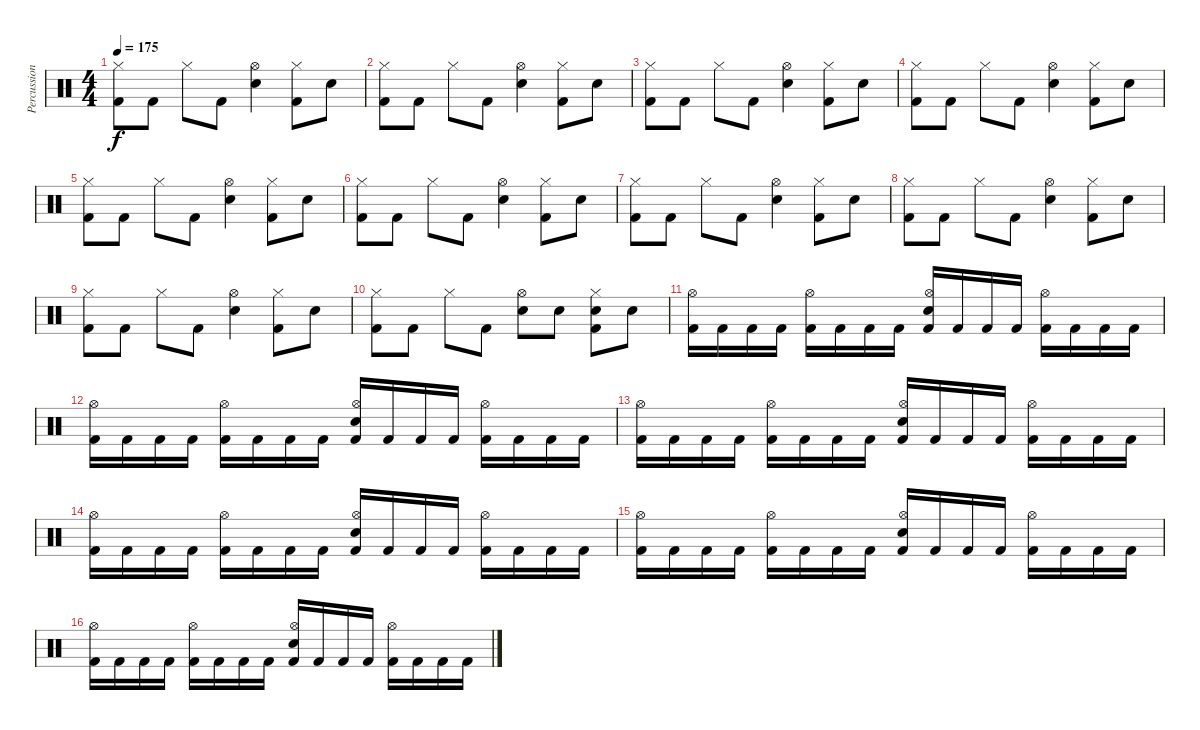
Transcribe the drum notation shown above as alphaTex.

\track ("Percussion" "Percussion") {instrument percussion}
\staff {score}
\articulation defaults
\ts (4 4)
\tempo 175
\clef neutral
\ks c
("Hi-Hat (closed)" "Kick (hit) 2").8{dy f} "Kick (hit) 2".8 "Hi-Hat (closed)".8 "Kick (hit) 2".8 ("Hi-Hat (open)" "Electric Snare (hit)").4 ("Hi-Hat (closed)" "Kick (hit) 2").8 "Electric Snare (hit)".8 |
("Hi-Hat (closed)" "Kick (hit) 2").8 "Kick (hit) 2".8 "Hi-Hat (closed)".8 "Kick (hit) 2".8 ("Hi-Hat (open)" "Electric Snare (hit)").4 ("Hi-Hat (closed)" "Kick (hit) 2").8 "Electric Snare (hit)".8 |
("Hi-Hat (closed)" "Kick (hit) 2").8 "Kick (hit) 2".8 "Hi-Hat (closed)".8 "Kick (hit) 2".8 ("Hi-Hat (open)" "Electric Snare (hit)").4 ("Hi-Hat (closed)" "Kick (hit) 2").8 "Electric Snare (hit)".8 |
("Hi-Hat (closed)" "Kick (hit) 2").8 "Kick (hit) 2".8 "Hi-Hat (closed)".8 "Kick (hit) 2".8 ("Hi-Hat (open)" "Electric Snare (hit)").4 ("Hi-Hat (closed)" "Kick (hit) 2").8 "Electric Snare (hit)".8 |
("Hi-Hat (closed)" "Kick (hit) 2").8 "Kick (hit) 2".8 "Hi-Hat (closed)".8 "Kick (hit) 2".8 ("Hi-Hat (open)" "Electric Snare (hit)").4 ("Hi-Hat (closed)" "Kick (hit) 2").8 "Electric Snare (hit)".8 |
("Hi-Hat (closed)" "Kick (hit) 2").8 "Kick (hit) 2".8 "Hi-Hat (closed)".8 "Kick (hit) 2".8 ("Hi-Hat (open)" "Electric Snare (hit)").4 ("Hi-Hat (closed)" "Kick (hit) 2").8 "Electric Snare (hit)".8 |
("Hi-Hat (closed)" "Kick (hit) 2").8 "Kick (hit) 2".8 "Hi-Hat (closed)".8 "Kick (hit) 2".8 ("Hi-Hat (open)" "Electric Snare (hit)").4 ("Hi-Hat (closed)" "Kick (hit) 2").8 "Electric Snare (hit)".8 |
("Hi-Hat (closed)" "Kick (hit) 2").8 "Kick (hit) 2".8 "Hi-Hat (closed)".8 "Kick (hit) 2".8 ("Hi-Hat (open)" "Electric Snare (hit)").4 ("Hi-Hat (closed)" "Kick (hit) 2").8 "Electric Snare (hit)".8 |
("Hi-Hat (closed)" "Kick (hit) 2").8 "Kick (hit) 2".8 "Hi-Hat (closed)".8 "Kick (hit) 2".8 ("Hi-Hat (open)" "Electric Snare (hit)").4 ("Hi-Hat (closed)" "Kick (hit) 2").8 "Electric Snare (hit)".8 |
("Hi-Hat (closed)" "Kick (hit) 2").8 "Kick (hit) 2".8 "Hi-Hat (closed)".8 "Kick (hit) 2".8 ("Hi-Hat (open)" "Electric Snare (hit)").8 "Electric Snare (hit)".8 ("Hi-Hat (closed)" "Electric Snare (hit)" "Kick (hit) 2").8 "Electric Snare (hit)".8 |
("Kick (hit) 2" "Hi-Hat (open)").16 "Kick (hit) 2".16 "Kick (hit) 2".16 "Kick (hit) 2".16 ("Kick (hit) 2" "Hi-Hat (open)").16 "Kick (hit) 2".16 "Kick (hit) 2".16 "Kick (hit) 2".16 ("Kick (hit) 2" "Electric Snare (hit)" "Hi-Hat (open)").16 "Kick (hit) 2".16 "Kick (hit) 2".16 "Kick (hit) 2".16 ("Kick (hit) 2" "Hi-Hat (open)").16 "Kick (hit) 2".16 "Kick (hit) 2".16 "Kick (hit) 2".16 |
("Kick (hit) 2" "Hi-Hat (open)").16 "Kick (hit) 2".16 "Kick (hit) 2".16 "Kick (hit) 2".16 ("Kick (hit) 2" "Hi-Hat (open)").16 "Kick (hit) 2".16 "Kick (hit) 2".16 "Kick (hit) 2".16 ("Kick (hit) 2" "Electric Snare (hit)" "Hi-Hat (open)").16 "Kick (hit) 2".16 "Kick (hit) 2".16 "Kick (hit) 2".16 ("Kick (hit) 2" "Hi-Hat (open)").16 "Kick (hit) 2".16 "Kick (hit) 2".16 "Kick (hit) 2".16 |
("Kick (hit) 2" "Hi-Hat (open)").16 "Kick (hit) 2".16 "Kick (hit) 2".16 "Kick (hit) 2".16 ("Kick (hit) 2" "Hi-Hat (open)").16 "Kick (hit) 2".16 "Kick (hit) 2".16 "Kick (hit) 2".16 ("Kick (hit) 2" "Electric Snare (hit)" "Hi-Hat (open)").16 "Kick (hit) 2".16 "Kick (hit) 2".16 "Kick (hit) 2".16 ("Kick (hit) 2" "Hi-Hat (open)").16 "Kick (hit) 2".16 "Kick (hit) 2".16 "Kick (hit) 2".16 |
("Kick (hit) 2" "Hi-Hat (open)").16 "Kick (hit) 2".16 "Kick (hit) 2".16 "Kick (hit) 2".16 ("Kick (hit) 2" "Hi-Hat (open)").16 "Kick (hit) 2".16 "Kick (hit) 2".16 "Kick (hit) 2".16 ("Kick (hit) 2" "Electric Snare (hit)" "Hi-Hat (open)").16 "Kick (hit) 2".16 "Kick (hit) 2".16 "Kick (hit) 2".16 ("Kick (hit) 2" "Hi-Hat (open)").16 "Kick (hit) 2".16 "Kick (hit) 2".16 "Kick (hit) 2".16 |
("Kick (hit) 2" "Hi-Hat (open)").16 "Kick (hit) 2".16 "Kick (hit) 2".16 "Kick (hit) 2".16 ("Kick (hit) 2" "Hi-Hat (open)").16 "Kick (hit) 2".16 "Kick (hit) 2".16 "Kick (hit) 2".16 ("Kick (hit) 2" "Electric Snare (hit)" "Hi-Hat (open)").16 "Kick (hit) 2".16 "Kick (hit) 2".16 "Kick (hit) 2".16 ("Kick (hit) 2" "Hi-Hat (open)").16 "Kick (hit) 2".16 "Kick (hit) 2".16 "Kick (hit) 2".16 |
("Kick (hit) 2" "Hi-Hat (open)").16 "Kick (hit) 2".16 "Kick (hit) 2".16 "Kick (hit) 2".16 ("Kick (hit) 2" "Hi-Hat (open)").16 "Kick (hit) 2".16 "Kick (hit) 2".16 "Kick (hit) 2".16 ("Kick (hit) 2" "Electric Snare (hit)" "Hi-Hat (open)").16 "Kick (hit) 2".16 "Kick (hit) 2".16 "Kick (hit) 2".16 ("Kick (hit) 2" "Hi-Hat (open)").16 "Kick (hit) 2".16 "Kick (hit) 2".16 "Kick (hit) 2".16
